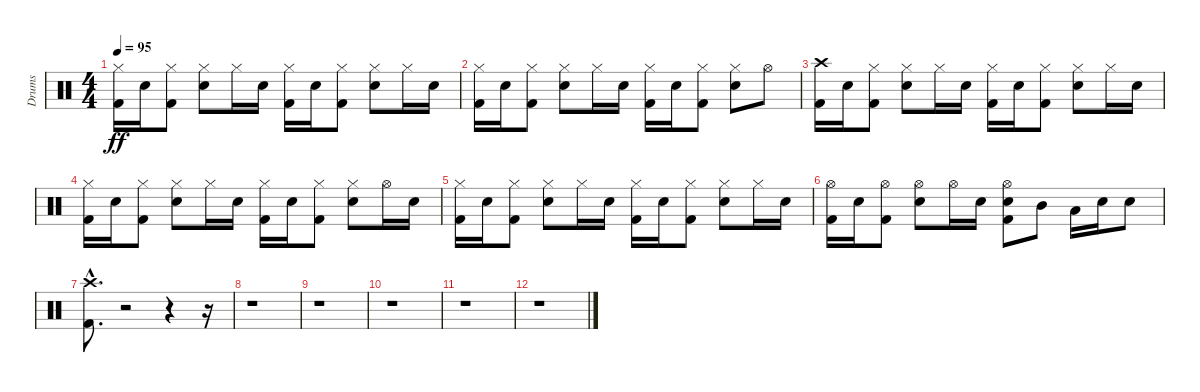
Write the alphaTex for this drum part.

\track ("Drums" "Drums") {instrument percussion}
\staff {score}
\articulation defaults
\ts (4 4)
\tempo 95
\clef neutral
\ks c
("Kick (hit) 2" "Hi-Hat (closed)").16{dy ff} "Electric Snare (hit)".16 ("Kick (hit) 2" "Hi-Hat (closed)").8 ("Electric Snare (hit)" "Hi-Hat (closed)").8 "Hi-Hat (closed)".16 "Electric Snare (hit)".16 ("Kick (hit) 2" "Hi-Hat (closed)").16 "Electric Snare (hit)".16 ("Kick (hit) 2" "Hi-Hat (closed)").8 ("Electric Snare (hit)" "Hi-Hat (closed)").8 "Hi-Hat (closed)".16 "Electric Snare (hit)".16 |
("Kick (hit) 2" "Hi-Hat (closed)").16 "Electric Snare (hit)".16 ("Kick (hit) 2" "Hi-Hat (closed)").8 ("Electric Snare (hit)" "Hi-Hat (closed)").8 "Hi-Hat (closed)".16 "Electric Snare (hit)".16 ("Kick (hit) 2" "Hi-Hat (closed)").16 "Electric Snare (hit)".16 ("Kick (hit) 2" "Hi-Hat (closed)").8 ("Electric Snare (hit)" "Hi-Hat (closed)").8 "Hi-Hat (open)".8 |
("Kick (hit) 2" "Crash high (hit)").16 "Electric Snare (hit)".16 ("Kick (hit) 2" "Hi-Hat (closed)").8 ("Electric Snare (hit)" "Hi-Hat (closed)").8 "Hi-Hat (closed)".16 "Electric Snare (hit)".16 ("Kick (hit) 2" "Hi-Hat (closed)").16 "Electric Snare (hit)".16 ("Kick (hit) 2" "Hi-Hat (closed)").8 ("Electric Snare (hit)" "Hi-Hat (closed)").8 "Hi-Hat (closed)".16 "Electric Snare (hit)".16 |
("Kick (hit) 2" "Hi-Hat (closed)").16 "Electric Snare (hit)".16 ("Kick (hit) 2" "Hi-Hat (closed)").8 ("Electric Snare (hit)" "Hi-Hat (closed)").8 "Hi-Hat (closed)".16 "Electric Snare (hit)".16 ("Kick (hit) 2" "Hi-Hat (closed)").16 "Electric Snare (hit)".16 ("Kick (hit) 2" "Hi-Hat (closed)").8 ("Electric Snare (hit)" "Hi-Hat (closed)").8 "Hi-Hat (open)".16 "Electric Snare (hit)".16 |
("Kick (hit) 2" "Hi-Hat (closed)").16 "Electric Snare (hit)".16 ("Kick (hit) 2" "Hi-Hat (closed)").8 ("Electric Snare (hit)" "Hi-Hat (closed)").8 "Hi-Hat (closed)".16 "Electric Snare (hit)".16 ("Kick (hit) 2" "Hi-Hat (closed)").16 "Electric Snare (hit)".16 ("Kick (hit) 2" "Hi-Hat (closed)").8 ("Electric Snare (hit)" "Hi-Hat (closed)").8 "Hi-Hat (closed)".16 "Electric Snare (hit)".16 |
("Kick (hit) 2" "Hi-Hat (open)").16 "Electric Snare (hit)".16 ("Kick (hit) 2" "Hi-Hat (open)").8 ("Electric Snare (hit)" "Hi-Hat (open)").8 "Hi-Hat (open)".16 "Electric Snare (hit)".16 ("Kick (hit) 2" "Electric Snare (hit)" "Hi-Hat (open)").8 "Mid Tom (hit)".8 "Low Tom (hit)".16 "Electric Snare (hit)".16 "Electric Snare (hit)".8 |
("Kick (hit) 2"{hac} "Crash high (hit)"{hac}).8{d} r.2 r.4 r.16 |
r.1 |
r.1 |
r.1 |
r.1 |
r.1
